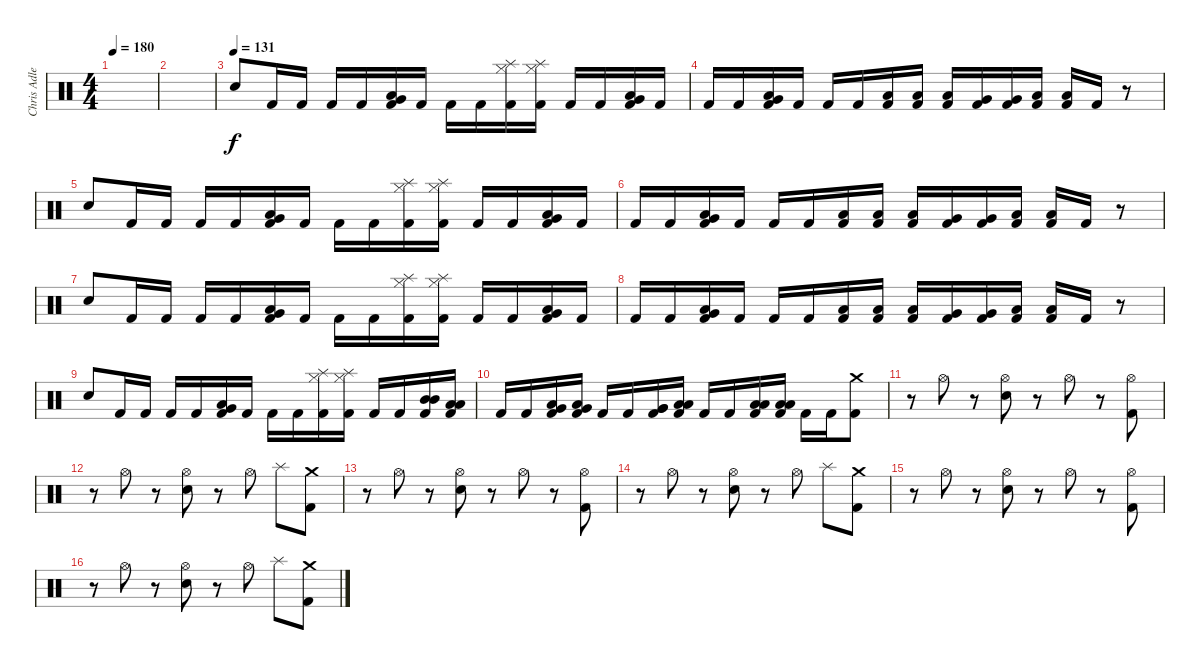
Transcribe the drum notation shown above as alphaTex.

\track ("Chris Adler" "Chris Adle") {instrument percussion}
\staff {score}
\articulation defaults
\ts (4 4)
\tempo 180
\clef neutral
\ks c
|
|
\tempo (131)
"Electric Snare (hit)".8 "Kick (hit) 2".16 "Kick (hit) 2".16 "Kick (hit) 2".16 "Kick (hit) 2".16 ("Very Low Tom (hit)" "Low Floor Tom (hit)" "Kick (hit) 2").16 "Kick (hit) 2".16 "Kick (hit) 2".16 "Kick (hit) 2".16 ("Splash (hit)" "Hi-Hat (closed)" "Kick (hit) 2").16 ("Splash (hit)" "Hi-Hat (closed)" "Kick (hit) 2").16 "Kick (hit) 2".16 "Kick (hit) 2".16 ("Very Low Tom (hit)" "Low Floor Tom (hit)" "Kick (hit) 2").16 "Kick (hit) 2".16 |
"Kick (hit) 2".16 "Kick (hit) 2".16 ("Very Low Tom (hit)" "Low Floor Tom (hit)" "Kick (hit) 2").16 "Kick (hit) 2".16 "Kick (hit) 2".16 "Kick (hit) 2".16 ("Low Floor Tom (hit)" "Kick (hit) 2").16 ("Low Floor Tom (hit)" "Kick (hit) 2").16 ("Low Floor Tom (hit)" "Kick (hit) 2").16 ("Very Low Tom (hit)" "Kick (hit) 2").16 ("Very Low Tom (hit)" "Kick (hit) 2").16 ("Low Tom (hit)" "Kick (hit) 2").16 ("Low Tom (hit)" "Kick (hit) 2").16 "Kick (hit) 2".16 r.8 |
"Electric Snare (hit)".8 "Kick (hit) 2".16 "Kick (hit) 2".16 "Kick (hit) 2".16 "Kick (hit) 2".16 ("Very Low Tom (hit)" "Low Floor Tom (hit)" "Kick (hit) 2").16 "Kick (hit) 2".16 "Kick (hit) 2".16 "Kick (hit) 2".16 ("Splash (hit)" "Hi-Hat (closed)" "Kick (hit) 2").16 ("Splash (hit)" "Hi-Hat (closed)" "Kick (hit) 2").16 "Kick (hit) 2".16 "Kick (hit) 2".16 ("Very Low Tom (hit)" "Low Floor Tom (hit)" "Kick (hit) 2").16 "Kick (hit) 2".16 |
"Kick (hit) 2".16 "Kick (hit) 2".16 ("Very Low Tom (hit)" "Low Floor Tom (hit)" "Kick (hit) 2").16 "Kick (hit) 2".16 "Kick (hit) 2".16 "Kick (hit) 2".16 ("Low Floor Tom (hit)" "Kick (hit) 2").16 ("Low Floor Tom (hit)" "Kick (hit) 2").16 ("Low Floor Tom (hit)" "Kick (hit) 2").16 ("Very Low Tom (hit)" "Kick (hit) 2").16 ("Very Low Tom (hit)" "Kick (hit) 2").16 ("Low Tom (hit)" "Kick (hit) 2").16 ("Low Tom (hit)" "Kick (hit) 2").16 "Kick (hit) 2".16 r.8 |
"Electric Snare (hit)".8 "Kick (hit) 2".16 "Kick (hit) 2".16 "Kick (hit) 2".16 "Kick (hit) 2".16 ("Very Low Tom (hit)" "Low Floor Tom (hit)" "Kick (hit) 2").16 "Kick (hit) 2".16 "Kick (hit) 2".16 "Kick (hit) 2".16 ("Splash (hit)" "Hi-Hat (closed)" "Kick (hit) 2").16 ("Splash (hit)" "Hi-Hat (closed)" "Kick (hit) 2").16 "Kick (hit) 2".16 "Kick (hit) 2".16 ("Very Low Tom (hit)" "Low Floor Tom (hit)" "Kick (hit) 2").16 "Kick (hit) 2".16 |
"Kick (hit) 2".16 "Kick (hit) 2".16 ("Very Low Tom (hit)" "Low Floor Tom (hit)" "Kick (hit) 2").16 "Kick (hit) 2".16 "Kick (hit) 2".16 "Kick (hit) 2".16 ("Low Floor Tom (hit)" "Kick (hit) 2").16 ("Low Floor Tom (hit)" "Kick (hit) 2").16 ("Low Floor Tom (hit)" "Kick (hit) 2").16 ("Very Low Tom (hit)" "Kick (hit) 2").16 ("Very Low Tom (hit)" "Kick (hit) 2").16 ("Low Tom (hit)" "Kick (hit) 2").16 ("Low Tom (hit)" "Kick (hit) 2").16 "Kick (hit) 2".16 r.8 |
"Electric Snare (hit)".8 "Kick (hit) 2".16 "Kick (hit) 2".16 "Kick (hit) 2".16 "Kick (hit) 2".16 ("Very Low Tom (hit)" "Low Floor Tom (hit)" "Kick (hit) 2").16 "Kick (hit) 2".16 "Kick (hit) 2".16 "Kick (hit) 2".16 ("Splash (hit)" "Hi-Hat (closed)" "Kick (hit) 2").16 ("Splash (hit)" "Hi-Hat (closed)" "Kick (hit) 2").16 "Kick (hit) 2".16 "Kick (hit) 2".16 ("Mid Tom (hit)" "Mid Tom (hit)" "Kick (hit) 2").16 ("Low Tom (hit)" "Low Tom (hit)" "Kick (hit) 2").16 |
"Kick (hit) 2".16 "Kick (hit) 2".16 ("Very Low Tom (hit)" "Low Tom (hit)" "Kick (hit) 2").16 ("Very Low Tom (hit)" "Low Tom (hit)" "Kick (hit) 2").16 "Kick (hit) 2".16 "Kick (hit) 2".16 ("Very Low Tom (hit)" "Very Low Tom (hit)" "Kick (hit) 2").16 ("Low Floor Tom (hit)" "Low Floor Tom (hit)" "Kick (hit) 2").16 "Kick (hit) 2".16 "Kick (hit) 2".16 ("Low Floor Tom (hit)" "Low Floor Tom (hit)" "Kick (hit) 2").16 ("Low Floor Tom (hit)" "Low Floor Tom (hit)" "Kick (hit) 2").16 "Kick (hit) 2".16 "Kick (hit) 2".16 ("Crash medium (hit)" "Kick (hit) 2").8 |
r.8 "Hi-Hat (open)".8 r.8 ("Hi-Hat (open)" "Electric Snare (hit)").8 r.8 "Hi-Hat (open)".8 r.8 ("Hi-Hat (open)" "Kick (hit) 2").8 |
r.8 "Hi-Hat (open)".8 r.8 ("Hi-Hat (open)" "Electric Snare (hit)").8 r.8 "Hi-Hat (open)".8 "Splash (hit)".8 ("Crash medium (hit)" "Kick (hit) 2").8 |
r.8 "Hi-Hat (open)".8 r.8 ("Hi-Hat (open)" "Electric Snare (hit)").8 r.8 "Hi-Hat (open)".8 r.8 ("Hi-Hat (open)" "Kick (hit) 2").8 |
r.8 "Hi-Hat (open)".8 r.8 ("Hi-Hat (open)" "Electric Snare (hit)").8 r.8 "Hi-Hat (open)".8 "Splash (hit)".8 ("Crash medium (hit)" "Kick (hit) 2").8 |
r.8 "Hi-Hat (open)".8 r.8 ("Hi-Hat (open)" "Electric Snare (hit)").8 r.8 "Hi-Hat (open)".8 r.8 ("Hi-Hat (open)" "Kick (hit) 2").8 |
r.8 "Hi-Hat (open)".8 r.8 ("Hi-Hat (open)" "Electric Snare (hit)").8 r.8 "Hi-Hat (open)".8 "Splash (hit)".8 ("Crash medium (hit)" "Kick (hit) 2").8
